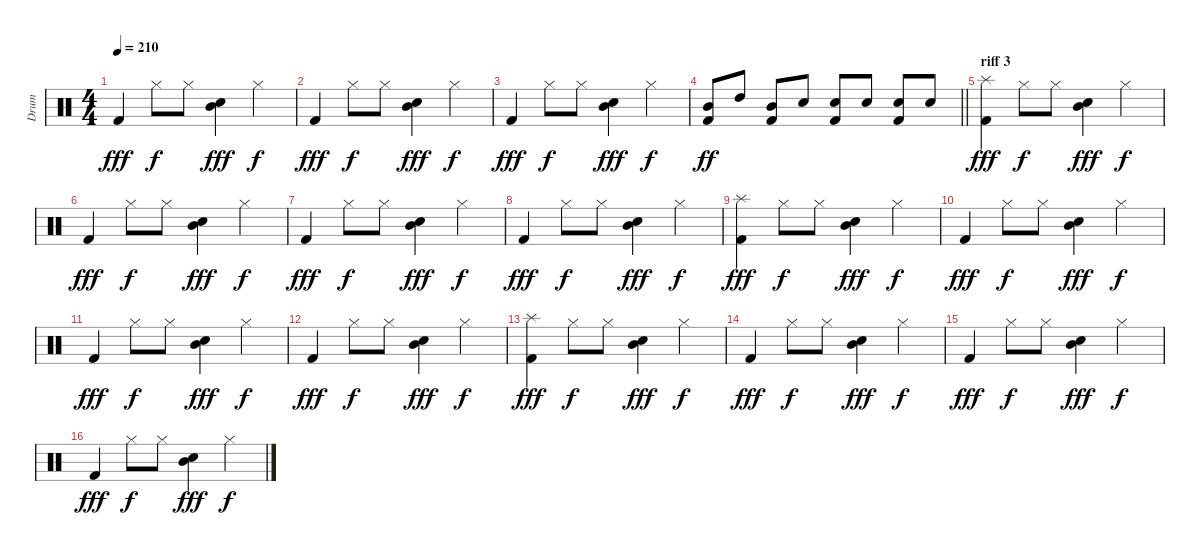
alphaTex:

\track ("Drum" "Drum") {instrument percussion}
\staff {score}
\articulation defaults
\ts (4 4)
\tempo 210
\clef neutral
\ks c "Kick (hit) 2".4{dy fff} "Hi-Hat (closed)".8{dy f} "Hi-Hat (closed)".8
("Snare (hit) 2" "Mid Tom (hit)").4{dy fff} "Hi-Hat (closed)".4{dy f} |
"Kick (hit) 2".4{dy fff} "Hi-Hat (closed)".8{dy f} "Hi-Hat (closed)".8 ("Snare (hit) 2" "Mid Tom (hit)").4{dy fff} "Hi-Hat (closed)".4{dy f} |
"Kick (hit) 2".4{dy fff} "Hi-Hat (closed)".8{dy f} "Hi-Hat (closed)".8 ("Snare (hit) 2" "Mid Tom (hit)").4{dy fff} "Hi-Hat (closed)".4{dy f} |
\barLineRight lightlight
("Kick (hit) 2" "Mid Tom (hit)").8{dy ff} "High Tom (hit)".8 ("Kick (hit) 2" "Mid Tom (hit)").8 "Snare (hit) 2".8 ("Kick (hit) 2" "Snare (hit) 2").8 "Snare (hit) 2".8 ("Kick (hit) 2" "Snare (hit) 2").8 "Snare (hit) 2".8 |
\section ("" "riff 3")
("Kick (hit) 2" "Splash (hit)").4{dy fff} "Hi-Hat (closed)".8{dy f} "Hi-Hat (closed)".8 ("Snare (hit) 2" "Mid Tom (hit)").4{dy fff} "Hi-Hat (closed)".4{dy f} |
"Kick (hit) 2".4{dy fff} "Hi-Hat (closed)".8{dy f} "Hi-Hat (closed)".8 ("Snare (hit) 2" "Mid Tom (hit)").4{dy fff} "Hi-Hat (closed)".4{dy f} |
"Kick (hit) 2".4{dy fff} "Hi-Hat (closed)".8{dy f} "Hi-Hat (closed)".8 ("Snare (hit) 2" "Mid Tom (hit)").4{dy fff} "Hi-Hat (closed)".4{dy f} |
"Kick (hit) 2".4{dy fff} "Hi-Hat (closed)".8{dy f} "Hi-Hat (closed)".8 ("Snare (hit) 2" "Mid Tom (hit)").4{dy fff} "Hi-Hat (closed)".4{dy f} |
("Kick (hit) 2" "Splash (hit)").4{dy fff} "Hi-Hat (closed)".8{dy f} "Hi-Hat (closed)".8 ("Snare (hit) 2" "Mid Tom (hit)").4{dy fff} "Hi-Hat (closed)".4{dy f} |
"Kick (hit) 2".4{dy fff} "Hi-Hat (closed)".8{dy f} "Hi-Hat (closed)".8 ("Snare (hit) 2" "Mid Tom (hit)").4{dy fff} "Hi-Hat (closed)".4{dy f} |
"Kick (hit) 2".4{dy fff} "Hi-Hat (closed)".8{dy f} "Hi-Hat (closed)".8 ("Snare (hit) 2" "Mid Tom (hit)").4{dy fff} "Hi-Hat (closed)".4{dy f} |
"Kick (hit) 2".4{dy fff} "Hi-Hat (closed)".8{dy f} "Hi-Hat (closed)".8 ("Snare (hit) 2" "Mid Tom (hit)").4{dy fff} "Hi-Hat (closed)".4{dy f} |
("Kick (hit) 2" "Splash (hit)").4{dy fff} "Hi-Hat (closed)".8{dy f} "Hi-Hat (closed)".8 ("Snare (hit) 2" "Mid Tom (hit)").4{dy fff} "Hi-Hat (closed)".4{dy f} |
"Kick (hit) 2".4{dy fff} "Hi-Hat (closed)".8{dy f} "Hi-Hat (closed)".8 ("Snare (hit) 2" "Mid Tom (hit)").4{dy fff} "Hi-Hat (closed)".4{dy f} |
"Kick (hit) 2".4{dy fff} "Hi-Hat (closed)".8{dy f} "Hi-Hat (closed)".8 ("Snare (hit) 2" "Mid Tom (hit)").4{dy fff} "Hi-Hat (closed)".4{dy f} |
"Kick (hit) 2".4{dy fff} "Hi-Hat (closed)".8{dy f} "Hi-Hat (closed)".8 ("Snare (hit) 2" "Mid Tom (hit)").4{dy fff} "Hi-Hat (closed)".4{dy f}
